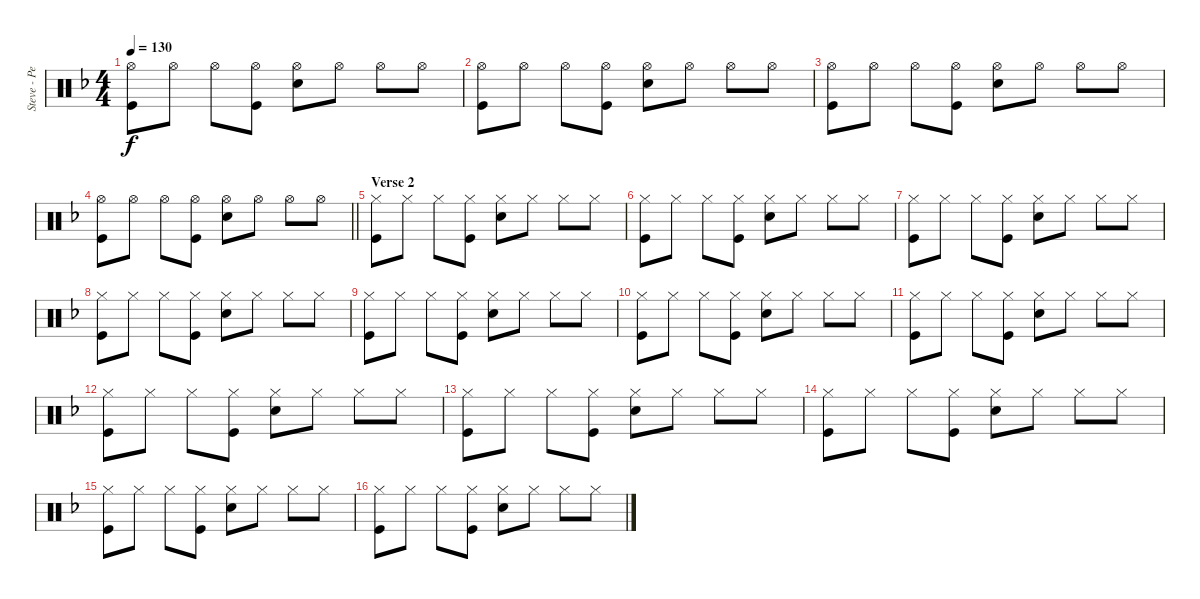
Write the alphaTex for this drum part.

\track ("Steve - Percussion" "Steve - Pe") {instrument percussion}
\staff {score}
\articulation defaults
\ts (4 4)
\tempo 130
\clef neutral
\ks f
("Kick (hit)" "Hi-Hat (open)").8{dy f} "Hi-Hat (open)".8 "Hi-Hat (open)".8 ("Kick (hit)" "Hi-Hat (open)").8 ("Snare (hit) 2" "Hi-Hat (open)").8 "Hi-Hat (open)".8 "Hi-Hat (open)".8 "Hi-Hat (open)".8 |
("Kick (hit)" "Hi-Hat (open)").8 "Hi-Hat (open)".8 "Hi-Hat (open)".8 ("Kick (hit)" "Hi-Hat (open)").8 ("Snare (hit) 2" "Hi-Hat (open)").8 "Hi-Hat (open)".8 "Hi-Hat (open)".8 "Hi-Hat (open)".8 |
("Kick (hit)" "Hi-Hat (open)").8 "Hi-Hat (open)".8 "Hi-Hat (open)".8 ("Kick (hit)" "Hi-Hat (open)").8 ("Snare (hit) 2" "Hi-Hat (open)").8 "Hi-Hat (open)".8 "Hi-Hat (open)".8 "Hi-Hat (open)".8 |
\barLineRight lightlight
("Kick (hit)" "Hi-Hat (open)").8 "Hi-Hat (open)".8 "Hi-Hat (open)".8 ("Kick (hit)" "Hi-Hat (open)").8 ("Snare (hit) 2" "Hi-Hat (open)").8 "Hi-Hat (open)".8 "Hi-Hat (open)".8 "Hi-Hat (open)".8 |
\section ("" "Verse 2")
("Kick (hit)" "Hi-Hat (closed)").8 "Hi-Hat (closed)".8 "Hi-Hat (closed)".8 ("Kick (hit)" "Hi-Hat (closed)").8 ("Snare (hit) 2" "Hi-Hat (closed)").8 "Hi-Hat (closed)".8 "Hi-Hat (closed)".8 "Hi-Hat (closed)".8 |
("Kick (hit)" "Hi-Hat (closed)").8 "Hi-Hat (closed)".8 "Hi-Hat (closed)".8 ("Kick (hit)" "Hi-Hat (closed)").8 ("Snare (hit) 2" "Hi-Hat (closed)").8 "Hi-Hat (closed)".8 "Hi-Hat (closed)".8 "Hi-Hat (closed)".8 |
("Kick (hit)" "Hi-Hat (closed)").8 "Hi-Hat (closed)".8 "Hi-Hat (closed)".8 ("Kick (hit)" "Hi-Hat (closed)").8 ("Snare (hit) 2" "Hi-Hat (closed)").8 "Hi-Hat (closed)".8 "Hi-Hat (closed)".8 "Hi-Hat (closed)".8 |
("Kick (hit)" "Hi-Hat (closed)").8 "Hi-Hat (closed)".8 "Hi-Hat (closed)".8 ("Kick (hit)" "Hi-Hat (closed)").8 ("Snare (hit) 2" "Hi-Hat (closed)").8 "Hi-Hat (closed)".8 "Hi-Hat (closed)".8 "Hi-Hat (closed)".8 |
("Kick (hit)" "Hi-Hat (closed)").8 "Hi-Hat (closed)".8 "Hi-Hat (closed)".8 ("Kick (hit)" "Hi-Hat (closed)").8 ("Snare (hit) 2" "Hi-Hat (closed)").8 "Hi-Hat (closed)".8 "Hi-Hat (closed)".8 "Hi-Hat (closed)".8 |
("Kick (hit)" "Hi-Hat (closed)").8 "Hi-Hat (closed)".8 "Hi-Hat (closed)".8 ("Kick (hit)" "Hi-Hat (closed)").8 ("Snare (hit) 2" "Hi-Hat (closed)").8 "Hi-Hat (closed)".8 "Hi-Hat (closed)".8 "Hi-Hat (closed)".8 |
("Kick (hit)" "Hi-Hat (closed)").8 "Hi-Hat (closed)".8 "Hi-Hat (closed)".8 ("Kick (hit)" "Hi-Hat (closed)").8 ("Snare (hit) 2" "Hi-Hat (closed)").8 "Hi-Hat (closed)".8 "Hi-Hat (closed)".8 "Hi-Hat (closed)".8 |
("Kick (hit)" "Hi-Hat (closed)").8 "Hi-Hat (closed)".8 "Hi-Hat (closed)".8 ("Kick (hit)" "Hi-Hat (closed)").8 ("Snare (hit) 2" "Hi-Hat (closed)").8 "Hi-Hat (closed)".8 "Hi-Hat (closed)".8 "Hi-Hat (closed)".8 |
("Kick (hit)" "Hi-Hat (closed)").8 "Hi-Hat (closed)".8 "Hi-Hat (closed)".8 ("Kick (hit)" "Hi-Hat (closed)").8 ("Snare (hit) 2" "Hi-Hat (closed)").8 "Hi-Hat (closed)".8 "Hi-Hat (closed)".8 "Hi-Hat (closed)".8 |
("Kick (hit)" "Hi-Hat (closed)").8 "Hi-Hat (closed)".8 "Hi-Hat (closed)".8 ("Kick (hit)" "Hi-Hat (closed)").8 ("Snare (hit) 2" "Hi-Hat (closed)").8 "Hi-Hat (closed)".8 "Hi-Hat (closed)".8 "Hi-Hat (closed)".8 |
("Kick (hit)" "Hi-Hat (closed)").8 "Hi-Hat (closed)".8 "Hi-Hat (closed)".8 ("Kick (hit)" "Hi-Hat (closed)").8 ("Snare (hit) 2" "Hi-Hat (closed)").8 "Hi-Hat (closed)".8 "Hi-Hat (closed)".8 "Hi-Hat (closed)".8 |
("Kick (hit)" "Hi-Hat (closed)").8 "Hi-Hat (closed)".8 "Hi-Hat (closed)".8 ("Kick (hit)" "Hi-Hat (closed)").8 ("Snare (hit) 2" "Hi-Hat (closed)").8 "Hi-Hat (closed)".8 "Hi-Hat (closed)".8 "Hi-Hat (closed)".8
